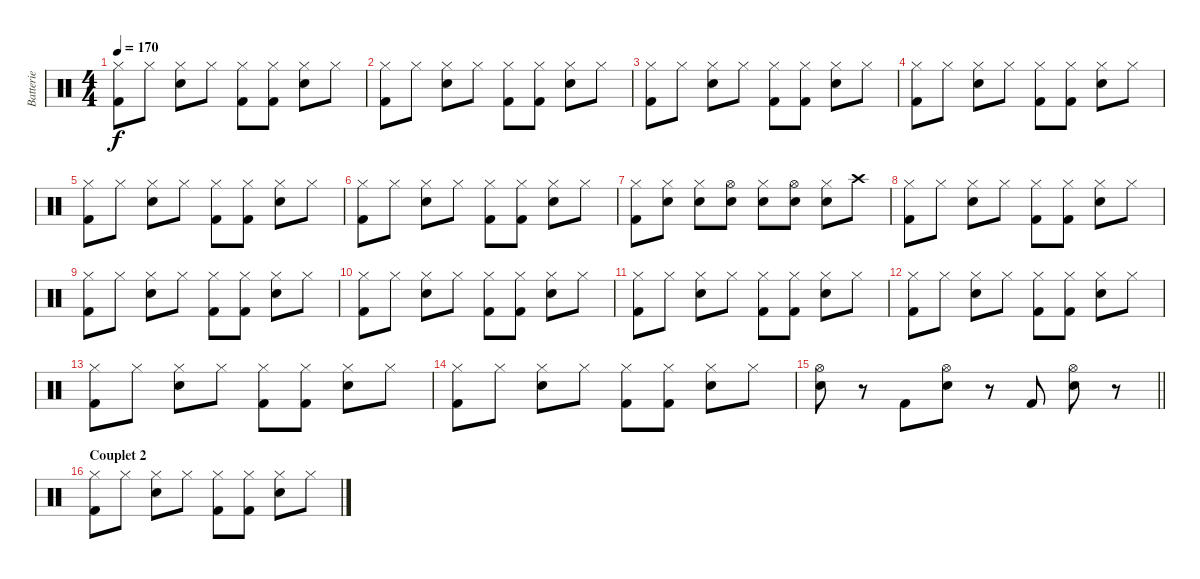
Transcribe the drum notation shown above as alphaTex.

\track ("Batterie" "Batterie") {instrument percussion}
\staff {score}
\articulation defaults
\ts (4 4)
\tempo 170
\clef neutral
\ks c
("Kick (hit) 2" "Hi-Hat (closed)").8{dy f} "Hi-Hat (closed)".8 ("Snare (hit) 2" "Hi-Hat (closed)").8 "Hi-Hat (closed)".8 ("Kick (hit) 2" "Hi-Hat (closed)").8 ("Kick (hit) 2" "Hi-Hat (closed)").8 ("Snare (hit) 2" "Hi-Hat (closed)").8 "Hi-Hat (closed)".8 |
("Kick (hit) 2" "Hi-Hat (closed)").8 "Hi-Hat (closed)".8 ("Snare (hit) 2" "Hi-Hat (closed)").8 "Hi-Hat (closed)".8 ("Kick (hit) 2" "Hi-Hat (closed)").8 ("Kick (hit) 2" "Hi-Hat (closed)").8 ("Snare (hit) 2" "Hi-Hat (closed)").8 "Hi-Hat (closed)".8 |
("Kick (hit) 2" "Hi-Hat (closed)").8 "Hi-Hat (closed)".8 ("Snare (hit) 2" "Hi-Hat (closed)").8 "Hi-Hat (closed)".8 ("Kick (hit) 2" "Hi-Hat (closed)").8 ("Kick (hit) 2" "Hi-Hat (closed)").8 ("Snare (hit) 2" "Hi-Hat (closed)").8 "Hi-Hat (closed)".8 |
("Kick (hit) 2" "Hi-Hat (closed)").8 "Hi-Hat (closed)".8 ("Snare (hit) 2" "Hi-Hat (closed)").8 "Hi-Hat (closed)".8 ("Kick (hit) 2" "Hi-Hat (closed)").8 ("Kick (hit) 2" "Hi-Hat (closed)").8 ("Snare (hit) 2" "Hi-Hat (closed)").8 "Hi-Hat (closed)".8 |
("Kick (hit) 2" "Hi-Hat (closed)").8 "Hi-Hat (closed)".8 ("Snare (hit) 2" "Hi-Hat (closed)").8 "Hi-Hat (closed)".8 ("Kick (hit) 2" "Hi-Hat (closed)").8 ("Kick (hit) 2" "Hi-Hat (closed)").8 ("Snare (hit) 2" "Hi-Hat (closed)").8 "Hi-Hat (closed)".8 |
("Kick (hit) 2" "Hi-Hat (closed)").8 "Hi-Hat (closed)".8 ("Snare (hit) 2" "Hi-Hat (closed)").8 "Hi-Hat (closed)".8 ("Kick (hit) 2" "Hi-Hat (closed)").8 ("Kick (hit) 2" "Hi-Hat (closed)").8 ("Snare (hit) 2" "Hi-Hat (closed)").8 "Hi-Hat (closed)".8 |
("Kick (hit) 2" "Hi-Hat (closed)").8 ("Snare (hit) 2" "Hi-Hat (closed)").8 ("Snare (hit) 2" "Hi-Hat (closed)").8 ("Snare (hit) 2" "Hi-Hat (open)").8 ("Snare (hit) 2" "Hi-Hat (closed)").8 ("Snare (hit) 2" "Hi-Hat (open)").8 ("Snare (hit) 2" "Hi-Hat (closed)").8 "Crash high (hit)".8 |
("Kick (hit) 2" "Hi-Hat (closed)").8 "Hi-Hat (closed)".8 ("Snare (hit) 2" "Hi-Hat (closed)").8 "Hi-Hat (closed)".8 ("Kick (hit) 2" "Hi-Hat (closed)").8 ("Kick (hit) 2" "Hi-Hat (closed)").8 ("Snare (hit) 2" "Hi-Hat (closed)").8 "Hi-Hat (closed)".8 |
("Kick (hit) 2" "Hi-Hat (closed)").8 "Hi-Hat (closed)".8 ("Snare (hit) 2" "Hi-Hat (closed)").8 "Hi-Hat (closed)".8 ("Kick (hit) 2" "Hi-Hat (closed)").8 ("Kick (hit) 2" "Hi-Hat (closed)").8 ("Snare (hit) 2" "Hi-Hat (closed)").8 "Hi-Hat (closed)".8 |
("Kick (hit) 2" "Hi-Hat (closed)").8 "Hi-Hat (closed)".8 ("Snare (hit) 2" "Hi-Hat (closed)").8 "Hi-Hat (closed)".8 ("Kick (hit) 2" "Hi-Hat (closed)").8 ("Kick (hit) 2" "Hi-Hat (closed)").8 ("Snare (hit) 2" "Hi-Hat (closed)").8 "Hi-Hat (closed)".8 |
("Kick (hit) 2" "Hi-Hat (closed)").8 "Hi-Hat (closed)".8 ("Snare (hit) 2" "Hi-Hat (closed)").8 "Hi-Hat (closed)".8 ("Kick (hit) 2" "Hi-Hat (closed)").8 ("Kick (hit) 2" "Hi-Hat (closed)").8 ("Snare (hit) 2" "Hi-Hat (closed)").8 "Hi-Hat (closed)".8 |
("Kick (hit) 2" "Hi-Hat (closed)").8 "Hi-Hat (closed)".8 ("Snare (hit) 2" "Hi-Hat (closed)").8 "Hi-Hat (closed)".8 ("Kick (hit) 2" "Hi-Hat (closed)").8 ("Kick (hit) 2" "Hi-Hat (closed)").8 ("Snare (hit) 2" "Hi-Hat (closed)").8 "Hi-Hat (closed)".8 |
("Kick (hit) 2" "Hi-Hat (closed)").8 "Hi-Hat (closed)".8 ("Snare (hit) 2" "Hi-Hat (closed)").8 "Hi-Hat (closed)".8 ("Kick (hit) 2" "Hi-Hat (closed)").8 ("Kick (hit) 2" "Hi-Hat (closed)").8 ("Snare (hit) 2" "Hi-Hat (closed)").8 "Hi-Hat (closed)".8 |
("Kick (hit) 2" "Hi-Hat (closed)").8 "Hi-Hat (closed)".8 ("Snare (hit) 2" "Hi-Hat (closed)").8 "Hi-Hat (closed)".8 ("Kick (hit) 2" "Hi-Hat (closed)").8 ("Kick (hit) 2" "Hi-Hat (closed)").8 ("Snare (hit) 2" "Hi-Hat (closed)").8 "Hi-Hat (closed)".8 |
\barLineRight lightlight
("Snare (hit) 2" "Hi-Hat (open)").8 r.8 "Kick (hit) 2".8 ("Snare (hit) 2" "Hi-Hat (open)").8 r.8 "Kick (hit) 2".8 ("Snare (hit) 2" "Hi-Hat (open)").8 r.8 |
\section ("" "Couplet 2")
("Kick (hit) 2" "Hi-Hat (closed)").8 "Hi-Hat (closed)".8 ("Snare (hit) 2" "Hi-Hat (closed)").8 "Hi-Hat (closed)".8 ("Kick (hit) 2" "Hi-Hat (closed)").8 ("Kick (hit) 2" "Hi-Hat (closed)").8 ("Snare (hit) 2" "Hi-Hat (closed)").8 "Hi-Hat (closed)".8
